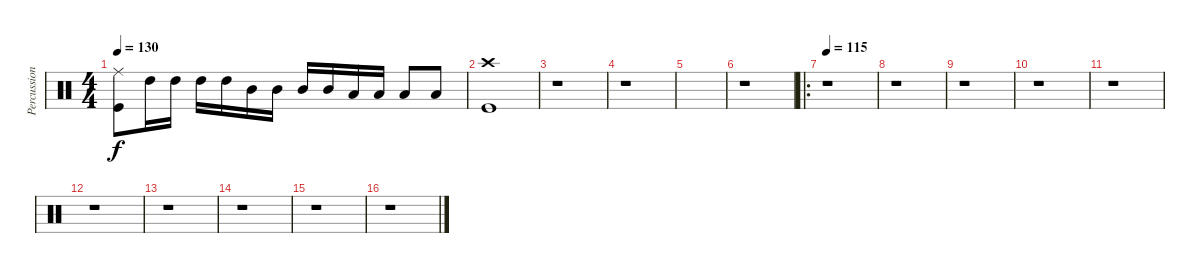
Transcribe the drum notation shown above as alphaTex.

\track ("Percussions" "Percussion") {instrument percussion}
\staff {score}
\articulation defaults
\ts (4 4)
\tempo 130
\clef neutral
\ks c
("Ride (middle)" "Kick (hit)").8{dy f} "High Tom (hit)".16 "High Tom (hit)".16 "High Tom (hit)".16 "High Tom (hit)".16 "Mid Tom (hit)".16 "Mid Tom (hit)".16 "Mid Tom (hit)".16 "Mid Tom (hit)".16 "Low Tom (hit)".16 "Low Tom (hit)".16 "Low Tom (hit)".8 "Low Tom (hit)".8 |
("Crash high (hit)" "Kick (hit)").1 |
r.1 |
r.1 |
|
r.1 |
\ro
\tempo 115
r.1 |
r.1 |
r.1 |
r.1 |
r.1 |
r.1 |
r.1 |
r.1 |
r.1 |
r.1
